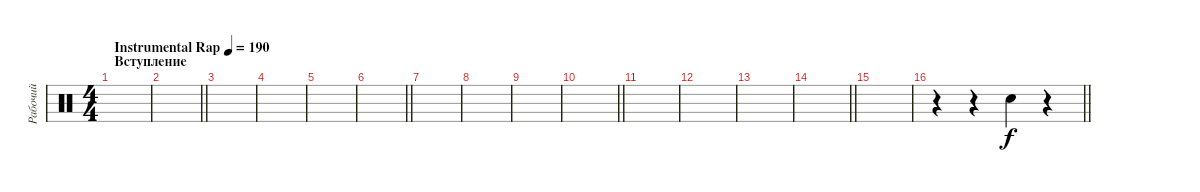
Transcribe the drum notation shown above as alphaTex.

\track ("Рабочий" "Рабочий") {instrument percussion}
\staff {score}
\articulation defaults
\ts (4 4)
\section ("" "Вступление")
\tempo (190 "Instrumental Rap")
\clef neutral
\ks c
|
\barLineRight lightlight
|
|
|
|
\barLineRight lightlight
|
|
|
|
\barLineRight lightlight
|
|
|
|
\barLineRight lightlight
|
|
\barLineRight lightlight
r.4 r.4 "Snare (hit) 2".4 r.4
